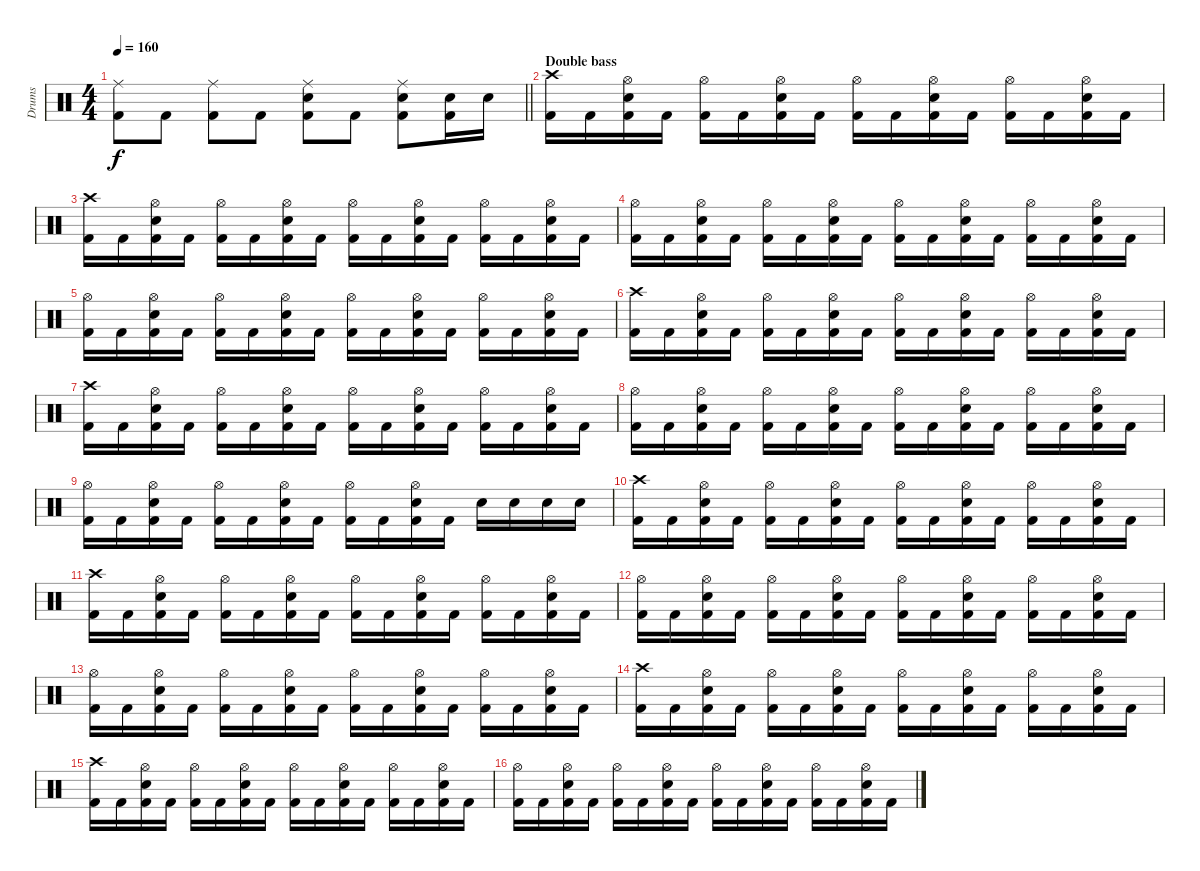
\track ("Drums" "Drums") {instrument percussion}
\staff {score}
\articulation defaults
\ts (4 4)
\tempo 160
\clef neutral
\barLineRight lightlight
\ks c
("Ride (middle)" "Kick (hit) 2").8{dy f} "Kick (hit) 2".8 ("Ride (middle)" "Kick (hit) 2").8 "Kick (hit) 2".8 ("Ride (middle)" "Snare (hit) 2" "Kick (hit) 2").8 "Kick (hit) 2".8 ("Ride (middle)" "Snare (hit) 2" "Kick (hit) 2").8 ("Snare (hit) 2" "Kick (hit) 2").16 "Snare (hit) 2".16 |
\section ("" "Double bass")
("Crash high (hit)" "Kick (hit) 2").16 "Kick (hit) 2".16 ("Hi-Hat (open)" "Snare (hit) 2" "Kick (hit) 2").16 "Kick (hit) 2".16 ("Hi-Hat (open)" "Kick (hit) 2").16 "Kick (hit) 2".16 ("Hi-Hat (open)" "Snare (hit) 2" "Kick (hit) 2").16 "Kick (hit) 2".16 ("Hi-Hat (open)" "Kick (hit) 2").16 "Kick (hit) 2".16 ("Hi-Hat (open)" "Snare (hit) 2" "Kick (hit) 2").16 "Kick (hit) 2".16 ("Hi-Hat (open)" "Kick (hit) 2").16 "Kick (hit) 2".16 ("Hi-Hat (open)" "Snare (hit) 2" "Kick (hit) 2").16 "Kick (hit) 2".16 |
("Crash high (hit)" "Kick (hit) 2").16 "Kick (hit) 2".16 ("Hi-Hat (open)" "Snare (hit) 2" "Kick (hit) 2").16 "Kick (hit) 2".16 ("Hi-Hat (open)" "Kick (hit) 2").16 "Kick (hit) 2".16 ("Hi-Hat (open)" "Snare (hit) 2" "Kick (hit) 2").16 "Kick (hit) 2".16 ("Hi-Hat (open)" "Kick (hit) 2").16 "Kick (hit) 2".16 ("Hi-Hat (open)" "Snare (hit) 2" "Kick (hit) 2").16 "Kick (hit) 2".16 ("Hi-Hat (open)" "Kick (hit) 2").16 "Kick (hit) 2".16 ("Hi-Hat (open)" "Snare (hit) 2" "Kick (hit) 2").16 "Kick (hit) 2".16 |
("Hi-Hat (open)" "Kick (hit) 2").16 "Kick (hit) 2".16 ("Hi-Hat (open)" "Snare (hit) 2" "Kick (hit) 2").16 "Kick (hit) 2".16 ("Hi-Hat (open)" "Kick (hit) 2").16 "Kick (hit) 2".16 ("Hi-Hat (open)" "Snare (hit) 2" "Kick (hit) 2").16 "Kick (hit) 2".16 ("Hi-Hat (open)" "Kick (hit) 2").16 "Kick (hit) 2".16 ("Hi-Hat (open)" "Snare (hit) 2" "Kick (hit) 2").16 "Kick (hit) 2".16 ("Hi-Hat (open)" "Kick (hit) 2").16 "Kick (hit) 2".16 ("Hi-Hat (open)" "Snare (hit) 2" "Kick (hit) 2").16 "Kick (hit) 2".16 |
("Hi-Hat (open)" "Kick (hit) 2").16 "Kick (hit) 2".16 ("Hi-Hat (open)" "Snare (hit) 2" "Kick (hit) 2").16 "Kick (hit) 2".16 ("Hi-Hat (open)" "Kick (hit) 2").16 "Kick (hit) 2".16 ("Hi-Hat (open)" "Snare (hit) 2" "Kick (hit) 2").16 "Kick (hit) 2".16 ("Hi-Hat (open)" "Kick (hit) 2").16 "Kick (hit) 2".16 ("Hi-Hat (open)" "Snare (hit) 2" "Kick (hit) 2").16 "Kick (hit) 2".16 ("Hi-Hat (open)" "Kick (hit) 2").16 "Kick (hit) 2".16 ("Hi-Hat (open)" "Snare (hit) 2" "Kick (hit) 2").16 "Kick (hit) 2".16 |
("Crash high (hit)" "Kick (hit) 2").16 "Kick (hit) 2".16 ("Hi-Hat (open)" "Snare (hit) 2" "Kick (hit) 2").16 "Kick (hit) 2".16 ("Hi-Hat (open)" "Kick (hit) 2").16 "Kick (hit) 2".16 ("Hi-Hat (open)" "Snare (hit) 2" "Kick (hit) 2").16 "Kick (hit) 2".16 ("Hi-Hat (open)" "Kick (hit) 2").16 "Kick (hit) 2".16 ("Hi-Hat (open)" "Snare (hit) 2" "Kick (hit) 2").16 "Kick (hit) 2".16 ("Hi-Hat (open)" "Kick (hit) 2").16 "Kick (hit) 2".16 ("Hi-Hat (open)" "Snare (hit) 2" "Kick (hit) 2").16 "Kick (hit) 2".16 |
("Crash high (hit)" "Kick (hit) 2").16 "Kick (hit) 2".16 ("Hi-Hat (open)" "Snare (hit) 2" "Kick (hit) 2").16 "Kick (hit) 2".16 ("Hi-Hat (open)" "Kick (hit) 2").16 "Kick (hit) 2".16 ("Hi-Hat (open)" "Snare (hit) 2" "Kick (hit) 2").16 "Kick (hit) 2".16 ("Hi-Hat (open)" "Kick (hit) 2").16 "Kick (hit) 2".16 ("Hi-Hat (open)" "Snare (hit) 2" "Kick (hit) 2").16 "Kick (hit) 2".16 ("Hi-Hat (open)" "Kick (hit) 2").16 "Kick (hit) 2".16 ("Hi-Hat (open)" "Snare (hit) 2" "Kick (hit) 2").16 "Kick (hit) 2".16 |
("Hi-Hat (open)" "Kick (hit) 2").16 "Kick (hit) 2".16 ("Hi-Hat (open)" "Snare (hit) 2" "Kick (hit) 2").16 "Kick (hit) 2".16 ("Hi-Hat (open)" "Kick (hit) 2").16 "Kick (hit) 2".16 ("Hi-Hat (open)" "Snare (hit) 2" "Kick (hit) 2").16 "Kick (hit) 2".16 ("Hi-Hat (open)" "Kick (hit) 2").16 "Kick (hit) 2".16 ("Hi-Hat (open)" "Snare (hit) 2" "Kick (hit) 2").16 "Kick (hit) 2".16 ("Hi-Hat (open)" "Kick (hit) 2").16 "Kick (hit) 2".16 ("Hi-Hat (open)" "Snare (hit) 2" "Kick (hit) 2").16 "Kick (hit) 2".16 |
("Hi-Hat (open)" "Kick (hit) 2").16 "Kick (hit) 2".16 ("Hi-Hat (open)" "Snare (hit) 2" "Kick (hit) 2").16 "Kick (hit) 2".16 ("Hi-Hat (open)" "Kick (hit) 2").16 "Kick (hit) 2".16 ("Hi-Hat (open)" "Snare (hit) 2" "Kick (hit) 2").16 "Kick (hit) 2".16 ("Hi-Hat (open)" "Kick (hit) 2").16 "Kick (hit) 2".16 ("Hi-Hat (open)" "Snare (hit) 2" "Kick (hit) 2").16 "Kick (hit) 2".16 "Snare (hit) 2".16 "Snare (hit) 2".16 "Snare (hit) 2".16 "Snare (hit) 2".16 |
("Crash high (hit)" "Kick (hit) 2").16 "Kick (hit) 2".16 ("Hi-Hat (open)" "Snare (hit) 2" "Kick (hit) 2").16 "Kick (hit) 2".16 ("Hi-Hat (open)" "Kick (hit) 2").16 "Kick (hit) 2".16 ("Hi-Hat (open)" "Snare (hit) 2" "Kick (hit) 2").16 "Kick (hit) 2".16 ("Hi-Hat (open)" "Kick (hit) 2").16 "Kick (hit) 2".16 ("Hi-Hat (open)" "Snare (hit) 2" "Kick (hit) 2").16 "Kick (hit) 2".16 ("Hi-Hat (open)" "Kick (hit) 2").16 "Kick (hit) 2".16 ("Hi-Hat (open)" "Snare (hit) 2" "Kick (hit) 2").16 "Kick (hit) 2".16 |
("Crash high (hit)" "Kick (hit) 2").16 "Kick (hit) 2".16 ("Hi-Hat (open)" "Snare (hit) 2" "Kick (hit) 2").16 "Kick (hit) 2".16 ("Hi-Hat (open)" "Kick (hit) 2").16 "Kick (hit) 2".16 ("Hi-Hat (open)" "Snare (hit) 2" "Kick (hit) 2").16 "Kick (hit) 2".16 ("Hi-Hat (open)" "Kick (hit) 2").16 "Kick (hit) 2".16 ("Hi-Hat (open)" "Snare (hit) 2" "Kick (hit) 2").16 "Kick (hit) 2".16 ("Hi-Hat (open)" "Kick (hit) 2").16 "Kick (hit) 2".16 ("Hi-Hat (open)" "Snare (hit) 2" "Kick (hit) 2").16 "Kick (hit) 2".16 |
("Hi-Hat (open)" "Kick (hit) 2").16 "Kick (hit) 2".16 ("Hi-Hat (open)" "Snare (hit) 2" "Kick (hit) 2").16 "Kick (hit) 2".16 ("Hi-Hat (open)" "Kick (hit) 2").16 "Kick (hit) 2".16 ("Hi-Hat (open)" "Snare (hit) 2" "Kick (hit) 2").16 "Kick (hit) 2".16 ("Hi-Hat (open)" "Kick (hit) 2").16 "Kick (hit) 2".16 ("Hi-Hat (open)" "Snare (hit) 2" "Kick (hit) 2").16 "Kick (hit) 2".16 ("Hi-Hat (open)" "Kick (hit) 2").16 "Kick (hit) 2".16 ("Hi-Hat (open)" "Snare (hit) 2" "Kick (hit) 2").16 "Kick (hit) 2".16 |
("Hi-Hat (open)" "Kick (hit) 2").16 "Kick (hit) 2".16 ("Hi-Hat (open)" "Snare (hit) 2" "Kick (hit) 2").16 "Kick (hit) 2".16 ("Hi-Hat (open)" "Kick (hit) 2").16 "Kick (hit) 2".16 ("Hi-Hat (open)" "Snare (hit) 2" "Kick (hit) 2").16 "Kick (hit) 2".16 ("Hi-Hat (open)" "Kick (hit) 2").16 "Kick (hit) 2".16 ("Hi-Hat (open)" "Snare (hit) 2" "Kick (hit) 2").16 "Kick (hit) 2".16 ("Hi-Hat (open)" "Kick (hit) 2").16 "Kick (hit) 2".16 ("Hi-Hat (open)" "Snare (hit) 2" "Kick (hit) 2").16 "Kick (hit) 2".16 |
("Crash high (hit)" "Kick (hit) 2").16 "Kick (hit) 2".16 ("Hi-Hat (open)" "Snare (hit) 2" "Kick (hit) 2").16 "Kick (hit) 2".16 ("Hi-Hat (open)" "Kick (hit) 2").16 "Kick (hit) 2".16 ("Hi-Hat (open)" "Snare (hit) 2" "Kick (hit) 2").16 "Kick (hit) 2".16 ("Hi-Hat (open)" "Kick (hit) 2").16 "Kick (hit) 2".16 ("Hi-Hat (open)" "Snare (hit) 2" "Kick (hit) 2").16 "Kick (hit) 2".16 ("Hi-Hat (open)" "Kick (hit) 2").16 "Kick (hit) 2".16 ("Hi-Hat (open)" "Snare (hit) 2" "Kick (hit) 2").16 "Kick (hit) 2".16 |
("Crash high (hit)" "Kick (hit) 2").16 "Kick (hit) 2".16 ("Hi-Hat (open)" "Snare (hit) 2" "Kick (hit) 2").16 "Kick (hit) 2".16 ("Hi-Hat (open)" "Kick (hit) 2").16 "Kick (hit) 2".16 ("Hi-Hat (open)" "Snare (hit) 2" "Kick (hit) 2").16 "Kick (hit) 2".16 ("Hi-Hat (open)" "Kick (hit) 2").16 "Kick (hit) 2".16 ("Hi-Hat (open)" "Snare (hit) 2" "Kick (hit) 2").16 "Kick (hit) 2".16 ("Hi-Hat (open)" "Kick (hit) 2").16 "Kick (hit) 2".16 ("Hi-Hat (open)" "Snare (hit) 2" "Kick (hit) 2").16 "Kick (hit) 2".16 |
("Hi-Hat (open)" "Kick (hit) 2").16 "Kick (hit) 2".16 ("Hi-Hat (open)" "Snare (hit) 2" "Kick (hit) 2").16 "Kick (hit) 2".16 ("Hi-Hat (open)" "Kick (hit) 2").16 "Kick (hit) 2".16 ("Hi-Hat (open)" "Snare (hit) 2" "Kick (hit) 2").16 "Kick (hit) 2".16 ("Hi-Hat (open)" "Kick (hit) 2").16 "Kick (hit) 2".16 ("Hi-Hat (open)" "Snare (hit) 2" "Kick (hit) 2").16 "Kick (hit) 2".16 ("Hi-Hat (open)" "Kick (hit) 2").16 "Kick (hit) 2".16 ("Hi-Hat (open)" "Snare (hit) 2" "Kick (hit) 2").16 "Kick (hit) 2".16
